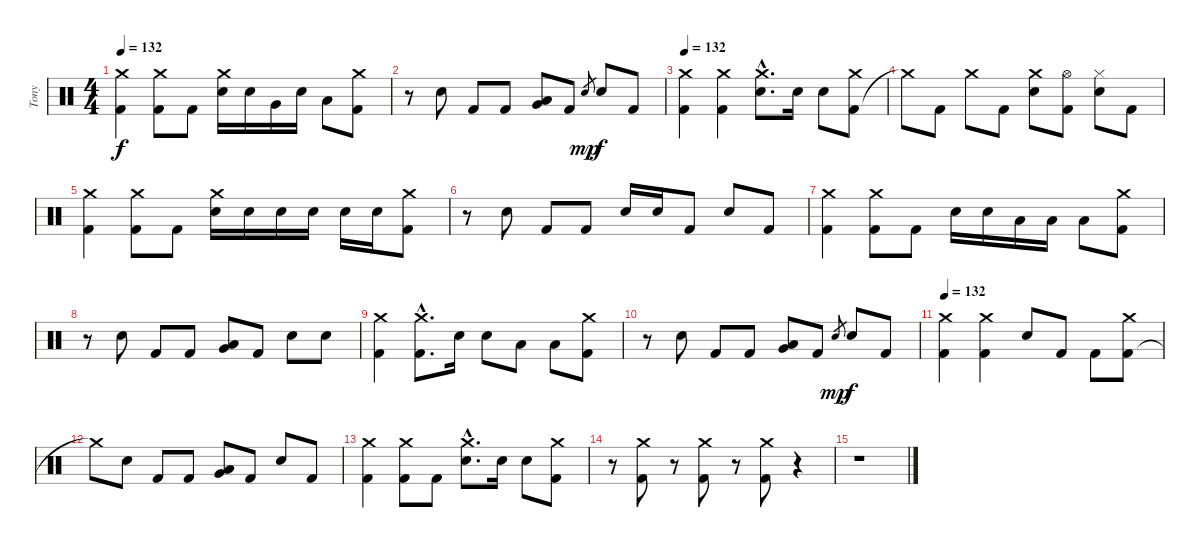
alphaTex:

\track ("Tony" "Tony") {instrument percussion}
\staff {score}
\articulation defaults
\ts (4 4)
\tempo 132
\clef neutral
\ks c
("Kick (hit) 2" "Crash medium (hit)").4{dy f} ("Crash medium (hit)" "Kick (hit) 2").8 "Kick (hit) 2".8 ("Electric Snare (hit)" "Crash medium (hit)").16 "Electric Snare (hit)".16 "Very Low Tom (hit)".16 "Electric Snare (hit)".16 "Low Floor Tom (hit)".8 ("Crash medium (hit)" "Kick (hit) 2").8 |
r.8 "Electric Snare (hit)".8 "Kick (hit) 2".8 "Kick (hit) 2".8 ("Low Floor Tom (hit)" "Very Low Tom (hit)").8 "Kick (hit) 2".8 "Electric Snare (hit)".8{gr dy mp} "Electric Snare (hit)".8{dy f} "Kick (hit) 2".8 |
\tempo 132
("Kick (hit) 2" "Crash medium (hit)").4 ("Kick (hit) 2" "Crash medium (hit)").4 ("Electric Snare (hit)"{hac} "Crash medium (hit)"{hac}).8{d} "Electric Snare (hit)".16 "Electric Snare (hit)".8 ("Kick (hit) 2" "Crash medium (hit)").8 |
"Crash medium (hit)"{t}.8 "Kick (hit) 2".8 "Crash medium (hit)".8 "Kick (hit) 2".8 ("Electric Snare (hit)" "Crash medium (hit)").8 ("Hi-Hat (open)" "Kick (hit) 2").8 ("Hi-Hat (closed)" "Electric Snare (hit)").8 "Kick (hit) 2".8 |
("Kick (hit) 2" "Crash medium (hit)").4 ("Crash medium (hit)" "Kick (hit) 2").8 "Kick (hit) 2".8 ("Electric Snare (hit)" "Crash medium (hit)").16 "Electric Snare (hit)".16 "Electric Snare (hit)".16 "Electric Snare (hit)".16 "Electric Snare (hit)".16 "Electric Snare (hit)".16 ("Kick (hit) 2" "Crash medium (hit)").8 |
r.8 "Electric Snare (hit)".8 "Kick (hit) 2".8 "Kick (hit) 2".8 "Electric Snare (hit)".16 "Electric Snare (hit)".16 "Kick (hit) 2".8 "Electric Snare (hit)".8 "Kick (hit) 2".8 |
("Kick (hit) 2" "Crash medium (hit)").4 ("Kick (hit) 2" "Crash medium (hit)").8 "Kick (hit) 2".8 "Electric Snare (hit)".16 "Electric Snare (hit)".16 "Low Tom (hit)".16 "Low Tom (hit)".16 "Low Floor Tom (hit)".8 ("Crash medium (hit)" "Kick (hit) 2").8 |
r.8 "Electric Snare (hit)".8 "Kick (hit) 2".8 "Kick (hit) 2".8 ("Very Low Tom (hit)" "Low Floor Tom (hit)").8 "Kick (hit) 2".8 "Electric Snare (hit)".8 "Electric Snare (hit)".8 |
("Kick (hit) 2" "Crash medium (hit)").4 ("Crash medium (hit)"{hac} "Kick (hit) 2"{hac}).8{d} "Electric Snare (hit)".16 "Electric Snare (hit)".8 "Low Tom (hit)".8 "Low Floor Tom (hit)".8 ("Kick (hit) 2" "Crash medium (hit)").8 |
r.8 "Electric Snare (hit)".8 "Kick (hit) 2".8 "Kick (hit) 2".8 ("Low Floor Tom (hit)" "Very Low Tom (hit)").8 "Kick (hit) 2".8 "Electric Snare (hit)".8{gr dy mp} "Electric Snare (hit)".8{dy f} "Kick (hit) 2".8 |
\tempo 132
("Kick (hit) 2" "Crash medium (hit)").4 ("Kick (hit) 2" "Crash medium (hit)").4 "Electric Snare (hit)".8 "Kick (hit) 2".8 "Kick (hit) 2".8 ("Kick (hit) 2" "Crash medium (hit)").8 |
"Crash medium (hit)"{t}.8 "Electric Snare (hit)".8 "Kick (hit) 2".8 "Kick (hit) 2".8 ("Very Low Tom (hit)" "Low Floor Tom (hit)").8 "Kick (hit) 2".8 "Electric Snare (hit)".8 "Kick (hit) 2".8 |
("Kick (hit) 2" "Crash medium (hit)").4 ("Crash medium (hit)" "Kick (hit) 2").8 "Kick (hit) 2".8 ("Electric Snare (hit)"{hac} "Crash medium (hit)"{hac}).8{d} "Electric Snare (hit)".16 "Electric Snare (hit)".8 ("Kick (hit) 2" "Crash medium (hit)").8 |
r.8 ("Kick (hit) 2" "Crash medium (hit)").8 r.8 ("Kick (hit) 2" "Crash medium (hit)").8 r.8 ("Kick (hit) 2" "Crash medium (hit)").8 r.4 |
r.1
